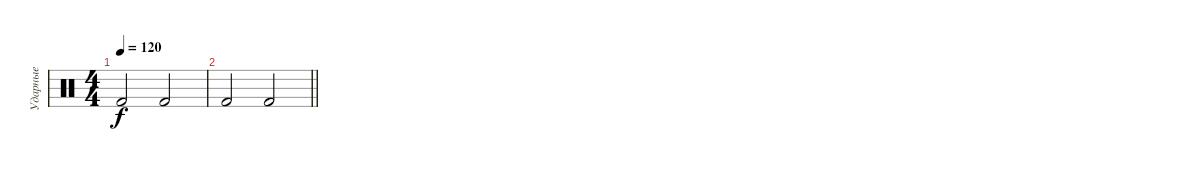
\track ("Ударные" "Ударные") {instrument percussion}
\staff {score}
\articulation defaults
\ts (4 4)
\tempo 120
\clef neutral
\ks c "Kick (hit) 2".2{dy f} "Kick (hit) 2".2
|
\barLineRight lightlight "Kick (hit) 2".2 "Kick (hit) 2".2
